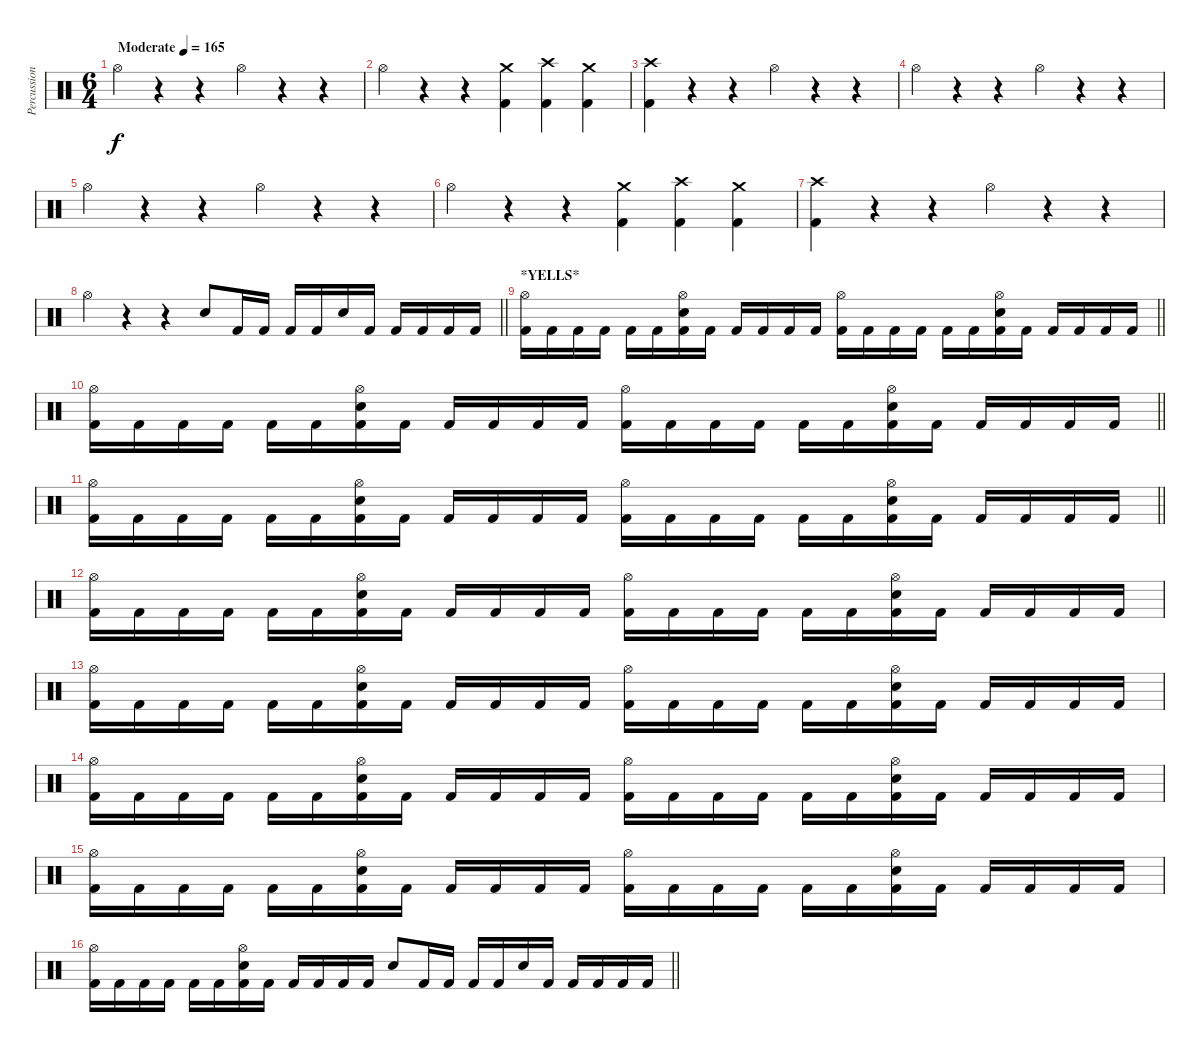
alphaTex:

\track ("Percussion" "Percussion") {instrument percussion}
\staff {score}
\articulation defaults
\ts (6 4)
\tempo (165 "Moderate")
\clef neutral
\ks c "Hi-Hat (open)".4{dy f}
r.4 r.4 "Hi-Hat (open)".4 r.4 r.4 |
"Hi-Hat (open)".4 r.4 r.4 ("Crash medium (hit)" "Kick (hit) 2").4 ("Crash high (hit)" "Kick (hit) 2").4 ("Crash medium (hit)" "Kick (hit) 2").4 |
("Crash high (hit)" "Kick (hit) 2").4 r.4 r.4 "Hi-Hat (open)".4 r.4 r.4 |
"Hi-Hat (open)".4 r.4 r.4 "Hi-Hat (open)".4 r.4 r.4 |
"Hi-Hat (open)".4 r.4 r.4 "Hi-Hat (open)".4 r.4 r.4 |
"Hi-Hat (open)".4 r.4 r.4 ("Crash medium (hit)" "Kick (hit) 2").4 ("Crash high (hit)" "Kick (hit) 2").4 ("Crash medium (hit)" "Kick (hit) 2").4 |
("Crash high (hit)" "Kick (hit) 2").4 r.4 r.4 "Hi-Hat (open)".4 r.4 r.4 |
\barLineRight lightlight "Hi-Hat (open)".4
r.4 r.4 "Electric Snare (hit)".8 "Kick (hit) 2".16 "Kick (hit) 2".16 "Kick (hit) 2".16 "Kick (hit) 2".16 "Electric Snare (hit)".16 "Kick (hit) 2".16 "Kick (hit) 2".16 "Kick (hit) 2".16 "Kick (hit) 2".16 "Kick (hit) 2".16 |
\section ("" "*YELLS*")
\barLineRight lightlight
("Hi-Hat (open)" "Kick (hit) 2").16 "Kick (hit) 2".16 "Kick (hit) 2".16 "Kick (hit) 2".16 "Kick (hit) 2".16 "Kick (hit) 2".16 ("Hi-Hat (open)" "Electric Snare (hit)" "Kick (hit) 2").16 "Kick (hit) 2".16 "Kick (hit) 2".16 "Kick (hit) 2".16 "Kick (hit) 2".16 "Kick (hit) 2".16 ("Hi-Hat (open)" "Kick (hit) 2").16 "Kick (hit) 2".16 "Kick (hit) 2".16 "Kick (hit) 2".16 "Kick (hit) 2".16 "Kick (hit) 2".16 ("Hi-Hat (open)" "Electric Snare (hit)" "Kick (hit) 2").16 "Kick (hit) 2".16 "Kick (hit) 2".16 "Kick (hit) 2".16 "Kick (hit) 2".16 "Kick (hit) 2".16 |
\section ("" "")
\barLineRight lightlight
("Hi-Hat (open)" "Kick (hit) 2").16 "Kick (hit) 2".16 "Kick (hit) 2".16 "Kick (hit) 2".16 "Kick (hit) 2".16 "Kick (hit) 2".16 ("Hi-Hat (open)" "Electric Snare (hit)" "Kick (hit) 2").16 "Kick (hit) 2".16 "Kick (hit) 2".16 "Kick (hit) 2".16 "Kick (hit) 2".16 "Kick (hit) 2".16 ("Hi-Hat (open)" "Kick (hit) 2").16 "Kick (hit) 2".16 "Kick (hit) 2".16 "Kick (hit) 2".16 "Kick (hit) 2".16 "Kick (hit) 2".16 ("Hi-Hat (open)" "Electric Snare (hit)" "Kick (hit) 2").16 "Kick (hit) 2".16 "Kick (hit) 2".16 "Kick (hit) 2".16 "Kick (hit) 2".16 "Kick (hit) 2".16 |
\section ("" "")
\barLineRight lightlight
("Hi-Hat (open)" "Kick (hit) 2").16 "Kick (hit) 2".16 "Kick (hit) 2".16 "Kick (hit) 2".16 "Kick (hit) 2".16 "Kick (hit) 2".16 ("Hi-Hat (open)" "Electric Snare (hit)" "Kick (hit) 2").16 "Kick (hit) 2".16 "Kick (hit) 2".16 "Kick (hit) 2".16 "Kick (hit) 2".16 "Kick (hit) 2".16 ("Hi-Hat (open)" "Kick (hit) 2").16 "Kick (hit) 2".16 "Kick (hit) 2".16 "Kick (hit) 2".16 "Kick (hit) 2".16 "Kick (hit) 2".16 ("Hi-Hat (open)" "Electric Snare (hit)" "Kick (hit) 2").16 "Kick (hit) 2".16 "Kick (hit) 2".16 "Kick (hit) 2".16 "Kick (hit) 2".16 "Kick (hit) 2".16 |
\section ("" "")
("Hi-Hat (open)" "Kick (hit) 2").16 "Kick (hit) 2".16 "Kick (hit) 2".16 "Kick (hit) 2".16 "Kick (hit) 2".16 "Kick (hit) 2".16 ("Hi-Hat (open)" "Electric Snare (hit)" "Kick (hit) 2").16 "Kick (hit) 2".16 "Kick (hit) 2".16 "Kick (hit) 2".16 "Kick (hit) 2".16 "Kick (hit) 2".16 ("Hi-Hat (open)" "Kick (hit) 2").16 "Kick (hit) 2".16 "Kick (hit) 2".16 "Kick (hit) 2".16 "Kick (hit) 2".16 "Kick (hit) 2".16 ("Hi-Hat (open)" "Electric Snare (hit)" "Kick (hit) 2").16 "Kick (hit) 2".16 "Kick (hit) 2".16 "Kick (hit) 2".16 "Kick (hit) 2".16 "Kick (hit) 2".16 |
("Hi-Hat (open)" "Kick (hit) 2").16 "Kick (hit) 2".16 "Kick (hit) 2".16 "Kick (hit) 2".16 "Kick (hit) 2".16 "Kick (hit) 2".16 ("Hi-Hat (open)" "Electric Snare (hit)" "Kick (hit) 2").16 "Kick (hit) 2".16 "Kick (hit) 2".16 "Kick (hit) 2".16 "Kick (hit) 2".16 "Kick (hit) 2".16 ("Hi-Hat (open)" "Kick (hit) 2").16 "Kick (hit) 2".16 "Kick (hit) 2".16 "Kick (hit) 2".16 "Kick (hit) 2".16 "Kick (hit) 2".16 ("Hi-Hat (open)" "Electric Snare (hit)" "Kick (hit) 2").16 "Kick (hit) 2".16 "Kick (hit) 2".16 "Kick (hit) 2".16 "Kick (hit) 2".16 "Kick (hit) 2".16 |
("Hi-Hat (open)" "Kick (hit) 2").16 "Kick (hit) 2".16 "Kick (hit) 2".16 "Kick (hit) 2".16 "Kick (hit) 2".16 "Kick (hit) 2".16 ("Hi-Hat (open)" "Electric Snare (hit)" "Kick (hit) 2").16 "Kick (hit) 2".16 "Kick (hit) 2".16 "Kick (hit) 2".16 "Kick (hit) 2".16 "Kick (hit) 2".16 ("Hi-Hat (open)" "Kick (hit) 2").16 "Kick (hit) 2".16 "Kick (hit) 2".16 "Kick (hit) 2".16 "Kick (hit) 2".16 "Kick (hit) 2".16 ("Hi-Hat (open)" "Electric Snare (hit)" "Kick (hit) 2").16 "Kick (hit) 2".16 "Kick (hit) 2".16 "Kick (hit) 2".16 "Kick (hit) 2".16 "Kick (hit) 2".16 |
("Hi-Hat (open)" "Kick (hit) 2").16 "Kick (hit) 2".16 "Kick (hit) 2".16 "Kick (hit) 2".16 "Kick (hit) 2".16 "Kick (hit) 2".16 ("Hi-Hat (open)" "Electric Snare (hit)" "Kick (hit) 2").16 "Kick (hit) 2".16 "Kick (hit) 2".16 "Kick (hit) 2".16 "Kick (hit) 2".16 "Kick (hit) 2".16 ("Hi-Hat (open)" "Kick (hit) 2").16 "Kick (hit) 2".16 "Kick (hit) 2".16 "Kick (hit) 2".16 "Kick (hit) 2".16 "Kick (hit) 2".16 ("Hi-Hat (open)" "Electric Snare (hit)" "Kick (hit) 2").16 "Kick (hit) 2".16 "Kick (hit) 2".16 "Kick (hit) 2".16 "Kick (hit) 2".16 "Kick (hit) 2".16 |
\barLineRight lightlight
("Hi-Hat (open)" "Kick (hit) 2").16 "Kick (hit) 2".16 "Kick (hit) 2".16 "Kick (hit) 2".16 "Kick (hit) 2".16 "Kick (hit) 2".16 ("Hi-Hat (open)" "Electric Snare (hit)" "Kick (hit) 2").16 "Kick (hit) 2".16 "Kick (hit) 2".16 "Kick (hit) 2".16 "Kick (hit) 2".16 "Kick (hit) 2".16 "Electric Snare (hit)".8 "Kick (hit) 2".16 "Kick (hit) 2".16 "Kick (hit) 2".16 "Kick (hit) 2".16 "Electric Snare (hit)".16 "Kick (hit) 2".16 "Kick (hit) 2".16 "Kick (hit) 2".16 "Kick (hit) 2".16 "Kick (hit) 2".16
